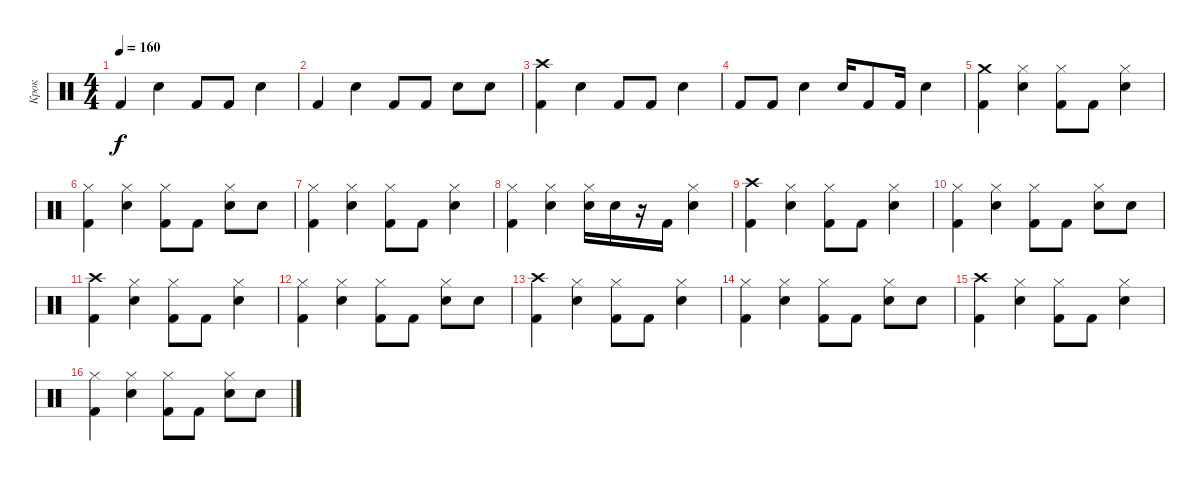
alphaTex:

\track ("Крок" "Крок") {instrument percussion}
\staff {score}
\articulation defaults
\ts (4 4)
\tempo 160
\clef neutral
\ks c "Kick (hit) 2".4{dy f} "Electric Snare (hit)".4 "Kick (hit) 2".8 "Kick (hit) 2".8 "Electric Snare (hit)".4
|
"Kick (hit) 2".4 "Electric Snare (hit)".4 "Kick (hit) 2".8 "Kick (hit) 2".8 "Electric Snare (hit)".8 "Electric Snare (hit)".8 |
("Kick (hit) 2" "Crash high (hit)").4 "Electric Snare (hit)".4 "Kick (hit) 2".8 "Kick (hit) 2".8 "Electric Snare (hit)".4 |
"Kick (hit) 2".8 "Kick (hit) 2".8 "Electric Snare (hit)".4 "Electric Snare (hit)".16 "Kick (hit) 2".8 "Kick (hit) 2".16 "Electric Snare (hit)".4 |
("Kick (hit) 2" "Crash medium (hit)").4 ("Hi-Hat (closed)" "Electric Snare (hit)").4 ("Hi-Hat (closed)" "Kick (hit) 2").8 "Kick (hit) 2".8 ("Hi-Hat (closed)" "Electric Snare (hit)").4 |
("Hi-Hat (closed)" "Kick (hit) 2").4 ("Hi-Hat (closed)" "Electric Snare (hit)").4 ("Hi-Hat (closed)" "Kick (hit) 2").8 "Kick (hit) 2".8 ("Hi-Hat (closed)" "Electric Snare (hit)").8 "Electric Snare (hit)".8 |
("Hi-Hat (closed)" "Kick (hit) 2").4 ("Hi-Hat (closed)" "Electric Snare (hit)").4 ("Hi-Hat (closed)" "Kick (hit) 2").8 "Kick (hit) 2".8 ("Hi-Hat (closed)" "Electric Snare (hit)").4 |
("Hi-Hat (closed)" "Kick (hit) 2").4 ("Hi-Hat (closed)" "Electric Snare (hit)").4 ("Hi-Hat (closed)" "Electric Snare (hit)").16 "Electric Snare (hit)".16 r.16 "Kick (hit) 2".16 ("Hi-Hat (closed)" "Electric Snare (hit)").4 |
("Crash high (hit)" "Kick (hit) 2").4 ("Hi-Hat (closed)" "Electric Snare (hit)").4 ("Hi-Hat (closed)" "Kick (hit) 2").8 "Kick (hit) 2".8 ("Hi-Hat (closed)" "Electric Snare (hit)").4 |
("Hi-Hat (closed)" "Kick (hit) 2").4 ("Hi-Hat (closed)" "Electric Snare (hit)").4 ("Hi-Hat (closed)" "Kick (hit) 2").8 "Kick (hit) 2".8 ("Hi-Hat (closed)" "Electric Snare (hit)").8 "Electric Snare (hit)".8 |
("Crash high (hit)" "Kick (hit) 2").4 ("Hi-Hat (closed)" "Electric Snare (hit)").4 ("Hi-Hat (closed)" "Kick (hit) 2").8 "Kick (hit) 2".8 ("Hi-Hat (closed)" "Electric Snare (hit)").4 |
("Hi-Hat (closed)" "Kick (hit) 2").4 ("Hi-Hat (closed)" "Electric Snare (hit)").4 ("Hi-Hat (closed)" "Kick (hit) 2").8 "Kick (hit) 2".8 ("Hi-Hat (closed)" "Electric Snare (hit)").8 "Electric Snare (hit)".8 |
("Crash high (hit)" "Kick (hit) 2").4 ("Hi-Hat (closed)" "Electric Snare (hit)").4 ("Hi-Hat (closed)" "Kick (hit) 2").8 "Kick (hit) 2".8 ("Hi-Hat (closed)" "Electric Snare (hit)").4 |
("Hi-Hat (closed)" "Kick (hit) 2").4 ("Hi-Hat (closed)" "Electric Snare (hit)").4 ("Hi-Hat (closed)" "Kick (hit) 2").8 "Kick (hit) 2".8 ("Hi-Hat (closed)" "Electric Snare (hit)").8 "Electric Snare (hit)".8 |
("Crash high (hit)" "Kick (hit) 2").4 ("Hi-Hat (closed)" "Electric Snare (hit)").4 ("Hi-Hat (closed)" "Kick (hit) 2").8 "Kick (hit) 2".8 ("Hi-Hat (closed)" "Electric Snare (hit)").4 |
("Hi-Hat (closed)" "Kick (hit) 2").4 ("Hi-Hat (closed)" "Electric Snare (hit)").4 ("Hi-Hat (closed)" "Kick (hit) 2").8 "Kick (hit) 2".8 ("Hi-Hat (closed)" "Electric Snare (hit)").8 "Electric Snare (hit)".8
